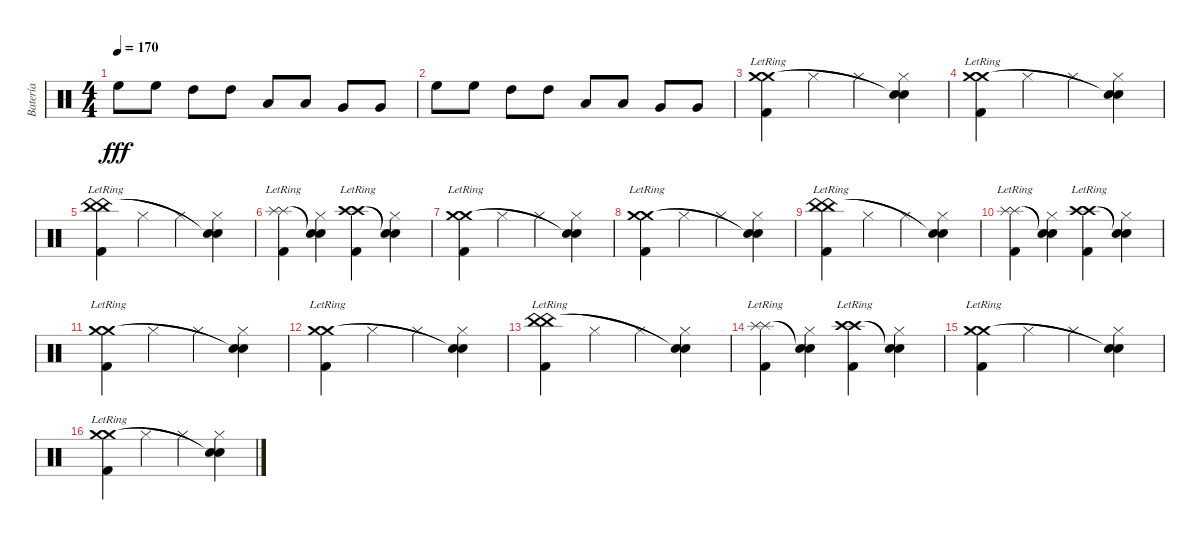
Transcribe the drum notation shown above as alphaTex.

\track ("Batería" "Batería") {instrument percussion}
\staff {score}
\articulation defaults
\ts (4 4)
\tempo 170
\clef neutral
\ks c "High Floor Tom (hit)".8{dy fff} "High Floor Tom (hit)".8 "High Tom (hit)".8 "High Tom (hit)".8 "Low Tom (hit)".8 "Low Tom (hit)".8 "Very Low Tom (hit)".8 "Very Low Tom (hit)".8
|
"High Floor Tom (hit)".8 "High Floor Tom (hit)".8 "High Tom (hit)".8 "High Tom (hit)".8 "Low Tom (hit)".8 "Low Tom (hit)".8 "Very Low Tom (hit)".8 "Very Low Tom (hit)".8 |
("Kick (hit) 2"{lr} "Crash medium (hit)"{lr} "Crash medium (hit)"{lr}).4 "Hi-Hat (closed)".4 "Hi-Hat (closed)".4 ("Hi-Hat (closed)" "Snare (hit)"{t} "Snare (hit)"{t}).4 |
("Kick (hit) 2"{lr} "Crash medium (hit)"{lr} "Crash medium (hit)"{lr}).4 "Hi-Hat (closed)".4 "Hi-Hat (closed)".4 ("Hi-Hat (closed)" "Snare (hit)"{t} "Snare (hit)"{t}).4 |
("Kick (hit) 2"{lr} "China (hit)"{lr} "China (hit)"{lr}).4 "Hi-Hat (closed)".4 "Hi-Hat (closed)".4 ("Hi-Hat (closed)" "Snare (hit)"{t} "Snare (hit)"{t}).4 |
("Kick (hit) 2" "Splash (hit)"{lr} "Splash (hit)"{lr}).4 ("Hi-Hat (closed)" "Snare (hit)"{t} "Snare (hit)"{t}).4 ("Kick (hit) 2" "Crash high (hit)"{lr} "Crash high (hit)"{lr}).4 ("Hi-Hat (closed)" "Snare (hit)"{t} "Snare (hit)"{t}).4 |
("Kick (hit) 2"{lr} "Crash medium (hit)"{lr} "Crash medium (hit)"{lr}).4 "Hi-Hat (closed)".4 "Hi-Hat (closed)".4 ("Hi-Hat (closed)" "Snare (hit)"{t} "Snare (hit)"{t}).4 |
("Kick (hit) 2"{lr} "Crash medium (hit)"{lr} "Crash medium (hit)"{lr}).4 "Hi-Hat (closed)".4 "Hi-Hat (closed)".4 ("Hi-Hat (closed)" "Snare (hit)"{t} "Snare (hit)"{t}).4 |
("Kick (hit) 2"{lr} "China (hit)"{lr} "China (hit)"{lr}).4 "Hi-Hat (closed)".4 "Hi-Hat (closed)".4 ("Hi-Hat (closed)" "Snare (hit)"{t} "Snare (hit)"{t}).4 |
("Kick (hit) 2" "Splash (hit)"{lr} "Splash (hit)"{lr}).4 ("Hi-Hat (closed)" "Snare (hit)"{t} "Snare (hit)"{t}).4 ("Kick (hit) 2" "Crash high (hit)"{lr} "Crash high (hit)"{lr}).4 ("Hi-Hat (closed)" "Snare (hit)"{t} "Snare (hit)"{t}).4 |
("Kick (hit) 2"{lr} "Crash medium (hit)"{lr} "Crash medium (hit)"{lr}).4 "Hi-Hat (closed)".4 "Hi-Hat (closed)".4 ("Hi-Hat (closed)" "Snare (hit)"{t} "Snare (hit)"{t}).4 |
("Kick (hit) 2"{lr} "Crash medium (hit)"{lr} "Crash medium (hit)"{lr}).4 "Hi-Hat (closed)".4 "Hi-Hat (closed)".4 ("Hi-Hat (closed)" "Snare (hit)"{t} "Snare (hit)"{t}).4 |
("Kick (hit) 2"{lr} "China (hit)"{lr} "China (hit)"{lr}).4 "Hi-Hat (closed)".4 "Hi-Hat (closed)".4 ("Hi-Hat (closed)" "Snare (hit)"{t} "Snare (hit)"{t}).4 |
("Kick (hit) 2" "Splash (hit)"{lr} "Splash (hit)"{lr}).4 ("Hi-Hat (closed)" "Snare (hit)"{t} "Snare (hit)"{t}).4 ("Kick (hit) 2" "Crash high (hit)"{lr} "Crash high (hit)"{lr}).4 ("Hi-Hat (closed)" "Snare (hit)"{t} "Snare (hit)"{t}).4 |
("Kick (hit) 2"{lr} "Crash medium (hit)"{lr} "Crash medium (hit)"{lr}).4 "Hi-Hat (closed)".4 "Hi-Hat (closed)".4 ("Hi-Hat (closed)" "Snare (hit)"{t} "Snare (hit)"{t}).4 |
("Kick (hit) 2"{lr} "Crash medium (hit)"{lr} "Crash medium (hit)"{lr}).4 "Hi-Hat (closed)".4 "Hi-Hat (closed)".4 ("Hi-Hat (closed)" "Snare (hit)"{t} "Snare (hit)"{t}).4
